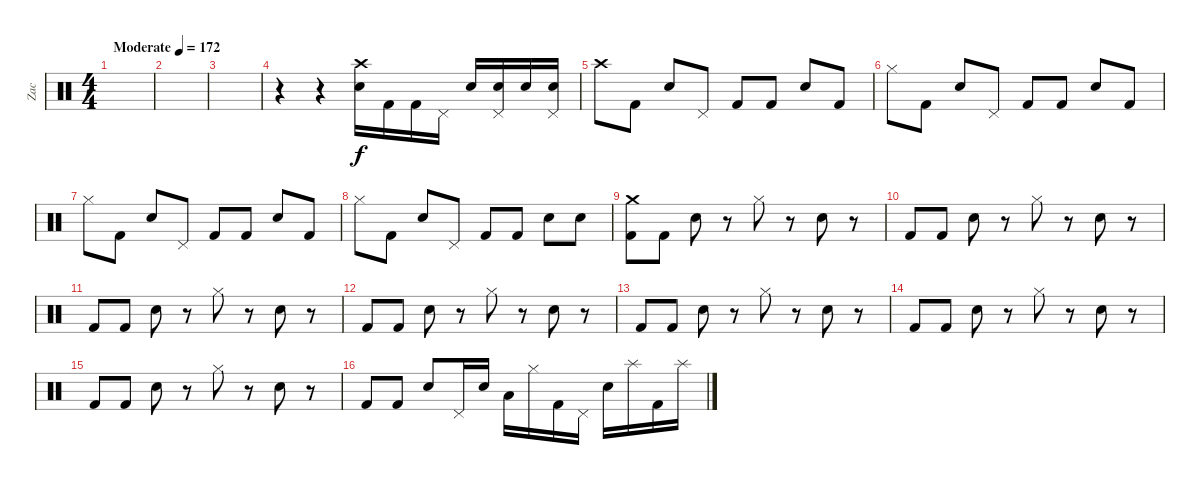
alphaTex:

\track ("Zac" "Zac") {instrument percussion}
\staff {score}
\articulation defaults
\ts (4 4)
\tempo (172 "Moderate")
\clef neutral
\ks c
|
|
|
r.4 r.4 ("Crash high (hit)" "Electric Snare (hit)").16 "Kick (hit) 2".16 "Kick (hit) 2".16 "Pedal Hi-Hat (hit)".16 "Electric Snare (hit)".16 ("Pedal Hi-Hat (hit)" "Electric Snare (hit)").16 "Electric Snare (hit)".16 ("Pedal Hi-Hat (hit)" "Electric Snare (hit)").16 |
"Crash high (hit)".8 "Kick (hit) 2".8 "Electric Snare (hit)".8 "Pedal Hi-Hat (hit)".8 "Kick (hit) 2".8 "Kick (hit) 2".8 "Electric Snare (hit)".8 "Kick (hit) 2".8 |
"Hi-Hat (closed)".8 "Kick (hit) 2".8 "Electric Snare (hit)".8 "Pedal Hi-Hat (hit)".8 "Kick (hit) 2".8 "Kick (hit) 2".8 "Electric Snare (hit)".8 "Kick (hit) 2".8 |
"Hi-Hat (closed)".8 "Kick (hit) 2".8 "Electric Snare (hit)".8 "Pedal Hi-Hat (hit)".8 "Kick (hit) 2".8 "Kick (hit) 2".8 "Electric Snare (hit)".8 "Kick (hit) 2".8 |
"Hi-Hat (closed)".8 "Kick (hit) 2".8 "Electric Snare (hit)".8 "Pedal Hi-Hat (hit)".8 "Kick (hit) 2".8 "Kick (hit) 2".8 "Electric Snare (hit)".8 "Electric Snare (hit)".8 |
("Crash medium (hit)" "Kick (hit) 2").8 "Kick (hit) 2".8 "Electric Snare (hit)".8 r.8 "Hi-Hat (closed)".8 r.8 "Electric Snare (hit)".8 r.8 |
"Kick (hit) 2".8 "Kick (hit) 2".8 "Electric Snare (hit)".8 r.8 "Hi-Hat (closed)".8 r.8 "Electric Snare (hit)".8 r.8 |
"Kick (hit) 2".8 "Kick (hit) 2".8 "Electric Snare (hit)".8 r.8 "Hi-Hat (closed)".8 r.8 "Electric Snare (hit)".8 r.8 |
"Kick (hit) 2".8 "Kick (hit) 2".8 "Electric Snare (hit)".8 r.8 "Hi-Hat (closed)".8 r.8 "Electric Snare (hit)".8 r.8 |
"Kick (hit) 2".8 "Kick (hit) 2".8 "Electric Snare (hit)".8 r.8 "Hi-Hat (closed)".8 r.8 "Electric Snare (hit)".8 r.8 |
"Kick (hit) 2".8 "Kick (hit) 2".8 "Electric Snare (hit)".8 r.8 "Hi-Hat (closed)".8 r.8 "Electric Snare (hit)".8 r.8 |
"Kick (hit) 2".8 "Kick (hit) 2".8 "Electric Snare (hit)".8 r.8 "Hi-Hat (closed)".8 r.8 "Electric Snare (hit)".8 r.8 |
"Kick (hit) 2".8 "Kick (hit) 2".8 "Electric Snare (hit)".8 "Pedal Hi-Hat (hit)".16 "Electric Snare (hit)".16 "Low Tom (hit)".16 "Hi-Hat (closed)".16 "Kick (hit) 2".16 "Pedal Hi-Hat (hit)".16 "Electric Snare (hit)".16 "Splash (hit)".16 "Kick (hit) 2".16 "Splash (hit)".16
